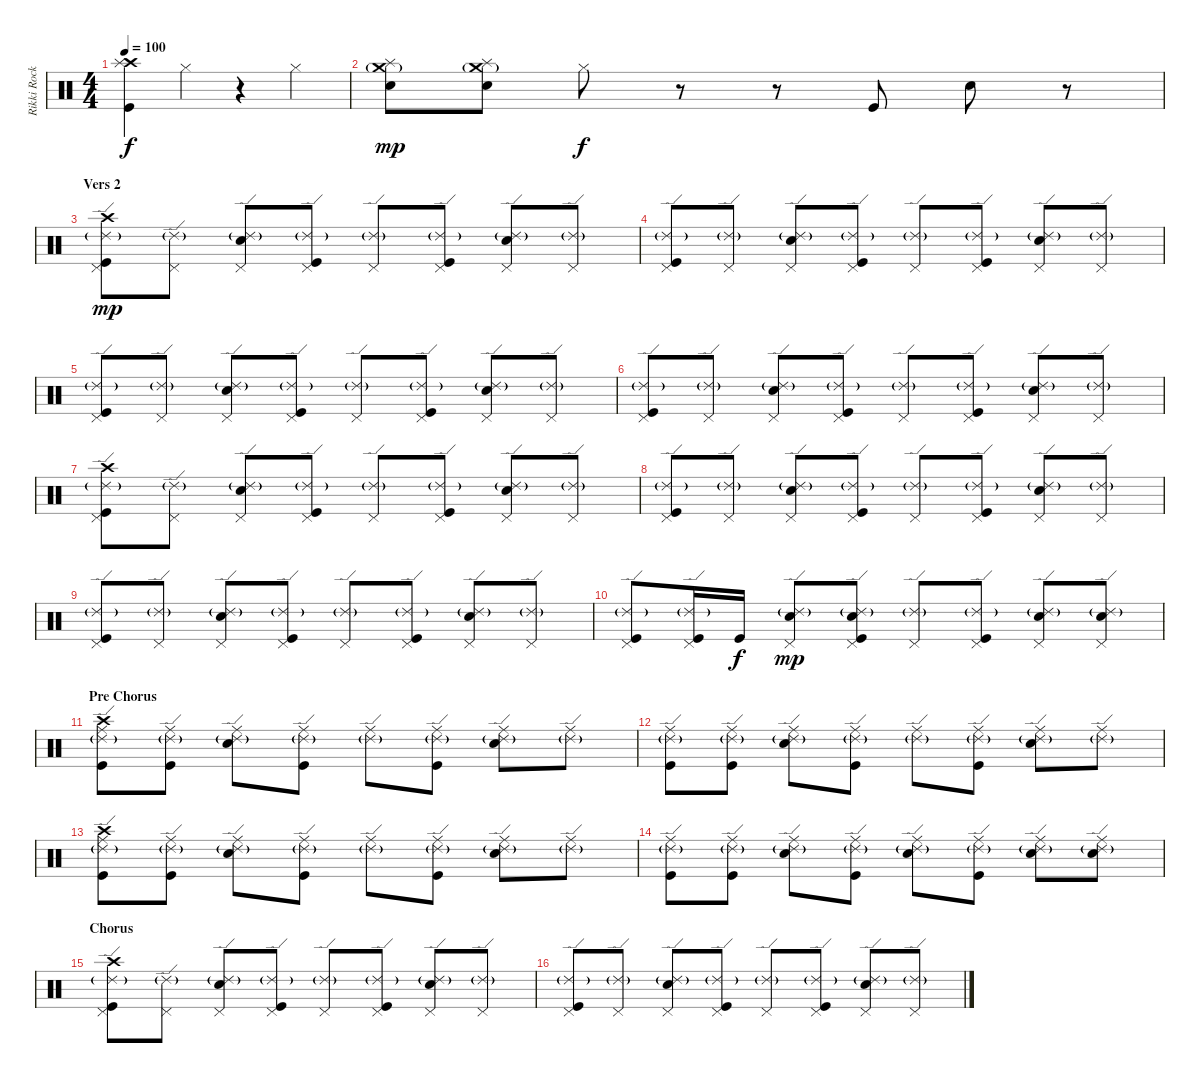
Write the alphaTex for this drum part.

\track ("Rikki Rockett Drums" "Rikki Rock") {instrument percussion}
\staff {score}
\articulation defaults
\ts (4 4)
\tempo 100
\clef neutral
\ks c
("Crash high (hit)" "Splash (hit)" "Kick (hit)").4{dy f} "Hi-Hat (closed)".4 r.4 "Hi-Hat (closed)".4 |
("Crash medium (hit)"{g} "Splash (hit)" "Snare (hit) 2").8{dy mp} ("Crash medium (hit)"{g} "Splash (hit)" "Snare (hit) 2").8 "Hi-Hat (closed)".8{dy f} r.8 r.8 "Kick (hit)".8 "Snare (hit) 2".8 r.8 |
\section ("" "Vers 2")
("Ride (edge) 2"{g} "Pedal Hi-Hat (hit)" "Crash high (hit)" "Kick (hit)").8{dy mp} ("Ride (edge) 2"{g} "Pedal Hi-Hat (hit)").8 ("Ride (edge) 2"{g} "Pedal Hi-Hat (hit)" "Snare (hit) 2").8 ("Ride (edge) 2"{g} "Pedal Hi-Hat (hit)" "Kick (hit)").8 ("Ride (edge) 2"{g} "Pedal Hi-Hat (hit)").8 ("Ride (edge) 2"{g} "Pedal Hi-Hat (hit)" "Kick (hit)").8 ("Ride (edge) 2"{g} "Pedal Hi-Hat (hit)" "Snare (hit) 2").8 ("Ride (edge) 2"{g} "Pedal Hi-Hat (hit)").8 |
("Ride (edge) 2"{g} "Pedal Hi-Hat (hit)" "Kick (hit)").8 ("Ride (edge) 2"{g} "Pedal Hi-Hat (hit)").8 ("Ride (edge) 2"{g} "Pedal Hi-Hat (hit)" "Snare (hit) 2").8 ("Ride (edge) 2"{g} "Pedal Hi-Hat (hit)" "Kick (hit)").8 ("Ride (edge) 2"{g} "Pedal Hi-Hat (hit)").8 ("Ride (edge) 2"{g} "Pedal Hi-Hat (hit)" "Kick (hit)").8 ("Ride (edge) 2"{g} "Pedal Hi-Hat (hit)" "Snare (hit) 2").8 ("Ride (edge) 2"{g} "Pedal Hi-Hat (hit)").8 |
("Ride (edge) 2"{g} "Pedal Hi-Hat (hit)" "Kick (hit)").8 ("Ride (edge) 2"{g} "Pedal Hi-Hat (hit)").8 ("Ride (edge) 2"{g} "Pedal Hi-Hat (hit)" "Snare (hit) 2").8 ("Ride (edge) 2"{g} "Pedal Hi-Hat (hit)" "Kick (hit)").8 ("Ride (edge) 2"{g} "Pedal Hi-Hat (hit)").8 ("Ride (edge) 2"{g} "Pedal Hi-Hat (hit)" "Kick (hit)").8 ("Ride (edge) 2"{g} "Pedal Hi-Hat (hit)" "Snare (hit) 2").8 ("Ride (edge) 2"{g} "Pedal Hi-Hat (hit)").8 |
("Ride (edge) 2"{g} "Pedal Hi-Hat (hit)" "Kick (hit)").8 ("Ride (edge) 2"{g} "Pedal Hi-Hat (hit)").8 ("Ride (edge) 2"{g} "Pedal Hi-Hat (hit)" "Snare (hit) 2").8 ("Ride (edge) 2"{g} "Pedal Hi-Hat (hit)" "Kick (hit)").8 ("Ride (edge) 2"{g} "Pedal Hi-Hat (hit)").8 ("Ride (edge) 2"{g} "Pedal Hi-Hat (hit)" "Kick (hit)").8 ("Ride (edge) 2"{g} "Pedal Hi-Hat (hit)" "Snare (hit) 2").8 ("Ride (edge) 2"{g} "Pedal Hi-Hat (hit)").8 |
("Ride (edge) 2"{g} "Pedal Hi-Hat (hit)" "Crash high (hit)" "Kick (hit)").8 ("Ride (edge) 2"{g} "Pedal Hi-Hat (hit)").8 ("Ride (edge) 2"{g} "Pedal Hi-Hat (hit)" "Snare (hit) 2").8 ("Ride (edge) 2"{g} "Pedal Hi-Hat (hit)" "Kick (hit)").8 ("Ride (edge) 2"{g} "Pedal Hi-Hat (hit)").8 ("Ride (edge) 2"{g} "Pedal Hi-Hat (hit)" "Kick (hit)").8 ("Ride (edge) 2"{g} "Pedal Hi-Hat (hit)" "Snare (hit) 2").8 ("Ride (edge) 2"{g} "Pedal Hi-Hat (hit)").8 |
("Ride (edge) 2"{g} "Pedal Hi-Hat (hit)" "Kick (hit)").8 ("Ride (edge) 2"{g} "Pedal Hi-Hat (hit)").8 ("Ride (edge) 2"{g} "Pedal Hi-Hat (hit)" "Snare (hit) 2").8 ("Ride (edge) 2"{g} "Pedal Hi-Hat (hit)" "Kick (hit)").8 ("Ride (edge) 2"{g} "Pedal Hi-Hat (hit)").8 ("Ride (edge) 2"{g} "Pedal Hi-Hat (hit)" "Kick (hit)").8 ("Ride (edge) 2"{g} "Pedal Hi-Hat (hit)" "Snare (hit) 2").8 ("Ride (edge) 2"{g} "Pedal Hi-Hat (hit)").8 |
("Ride (edge) 2"{g} "Pedal Hi-Hat (hit)" "Kick (hit)").8 ("Ride (edge) 2"{g} "Pedal Hi-Hat (hit)").8 ("Ride (edge) 2"{g} "Pedal Hi-Hat (hit)" "Snare (hit) 2").8 ("Ride (edge) 2"{g} "Pedal Hi-Hat (hit)" "Kick (hit)").8 ("Ride (edge) 2"{g} "Pedal Hi-Hat (hit)").8 ("Ride (edge) 2"{g} "Pedal Hi-Hat (hit)" "Kick (hit)").8 ("Ride (edge) 2"{g} "Pedal Hi-Hat (hit)" "Snare (hit) 2").8 ("Ride (edge) 2"{g} "Pedal Hi-Hat (hit)").8 |
("Ride (edge) 2"{g} "Pedal Hi-Hat (hit)" "Kick (hit)").8 ("Ride (edge) 2"{g} "Pedal Hi-Hat (hit)" "Kick (hit)").16 "Kick (hit)".16{dy f} ("Ride (edge) 2"{g} "Pedal Hi-Hat (hit)" "Snare (hit) 2").8{dy mp} ("Ride (edge) 2"{g} "Pedal Hi-Hat (hit)" "Snare (hit) 2" "Kick (hit)").8 ("Ride (edge) 2"{g} "Pedal Hi-Hat (hit)").8 ("Ride (edge) 2"{g} "Pedal Hi-Hat (hit)" "Kick (hit)").8 ("Ride (edge) 2"{g} "Pedal Hi-Hat (hit)" "Snare (hit) 2").8 ("Ride (edge) 2"{g} "Pedal Hi-Hat (hit)" "Snare (hit) 2").8 |
\section ("" "Pre Chorus")
("Ride (edge) 2"{g} "Ride (middle)" "Crash high (hit)" "Kick (hit)").8 ("Ride (edge) 2"{g} "Ride (middle)" "Kick (hit)").8 ("Ride (edge) 2"{g} "Ride (middle)" "Snare (hit) 2").8 ("Ride (edge) 2"{g} "Ride (middle)" "Kick (hit)").8 ("Ride (edge) 2"{g} "Ride (middle)").8 ("Ride (edge) 2"{g} "Ride (middle)" "Kick (hit)").8 ("Ride (edge) 2"{g} "Ride (middle)" "Snare (hit) 2").8 ("Ride (edge) 2"{g} "Ride (middle)").8 |
("Ride (edge) 2"{g} "Ride (middle)" "Kick (hit)").8 ("Ride (edge) 2"{g} "Ride (middle)" "Kick (hit)").8 ("Ride (edge) 2"{g} "Ride (middle)" "Snare (hit) 2").8 ("Ride (edge) 2"{g} "Ride (middle)" "Kick (hit)").8 ("Ride (edge) 2"{g} "Ride (middle)").8 ("Ride (edge) 2"{g} "Ride (middle)" "Kick (hit)").8 ("Ride (edge) 2"{g} "Ride (middle)" "Snare (hit) 2").8 ("Ride (edge) 2"{g} "Ride (middle)").8 |
("Ride (edge) 2"{g} "Ride (middle)" "Crash high (hit)" "Kick (hit)").8 ("Ride (edge) 2"{g} "Ride (middle)" "Kick (hit)").8 ("Ride (edge) 2"{g} "Ride (middle)" "Snare (hit) 2").8 ("Ride (edge) 2"{g} "Ride (middle)" "Kick (hit)").8 ("Ride (edge) 2"{g} "Ride (middle)").8 ("Ride (edge) 2"{g} "Ride (middle)" "Kick (hit)").8 ("Ride (edge) 2"{g} "Ride (middle)" "Snare (hit) 2").8 ("Ride (edge) 2"{g} "Ride (middle)").8 |
("Ride (edge) 2"{g} "Ride (middle)" "Kick (hit)").8 ("Ride (edge) 2"{g} "Ride (middle)" "Kick (hit)").8 ("Ride (edge) 2"{g} "Ride (middle)" "Snare (hit) 2").8 ("Ride (edge) 2"{g} "Ride (middle)" "Kick (hit)").8 ("Ride (edge) 2"{g} "Ride (middle)" "Snare (hit) 2").8 ("Ride (edge) 2"{g} "Ride (middle)" "Kick (hit)").8 ("Ride (edge) 2"{g} "Ride (middle)" "Snare (hit) 2").8 ("Ride (edge) 2"{g} "Ride (middle)" "Snare (hit) 2").8 |
\section ("" "Chorus")
("Ride (edge) 2"{g} "Pedal Hi-Hat (hit)" "Crash high (hit)" "Kick (hit)").8 ("Ride (edge) 2"{g} "Pedal Hi-Hat (hit)").8 ("Ride (edge) 2"{g} "Pedal Hi-Hat (hit)" "Snare (hit) 2").8 ("Ride (edge) 2"{g} "Pedal Hi-Hat (hit)" "Kick (hit)").8 ("Ride (edge) 2"{g} "Pedal Hi-Hat (hit)").8 ("Ride (edge) 2"{g} "Pedal Hi-Hat (hit)" "Kick (hit)").8 ("Ride (edge) 2"{g} "Pedal Hi-Hat (hit)" "Snare (hit) 2").8 ("Ride (edge) 2"{g} "Pedal Hi-Hat (hit)").8 |
("Ride (edge) 2"{g} "Pedal Hi-Hat (hit)" "Kick (hit)").8 ("Ride (edge) 2"{g} "Pedal Hi-Hat (hit)").8 ("Ride (edge) 2"{g} "Pedal Hi-Hat (hit)" "Snare (hit) 2").8 ("Ride (edge) 2"{g} "Pedal Hi-Hat (hit)" "Kick (hit)").8 ("Ride (edge) 2"{g} "Pedal Hi-Hat (hit)").8 ("Ride (edge) 2"{g} "Pedal Hi-Hat (hit)" "Kick (hit)").8 ("Ride (edge) 2"{g} "Pedal Hi-Hat (hit)" "Snare (hit) 2").8 ("Ride (edge) 2"{g} "Pedal Hi-Hat (hit)").8
